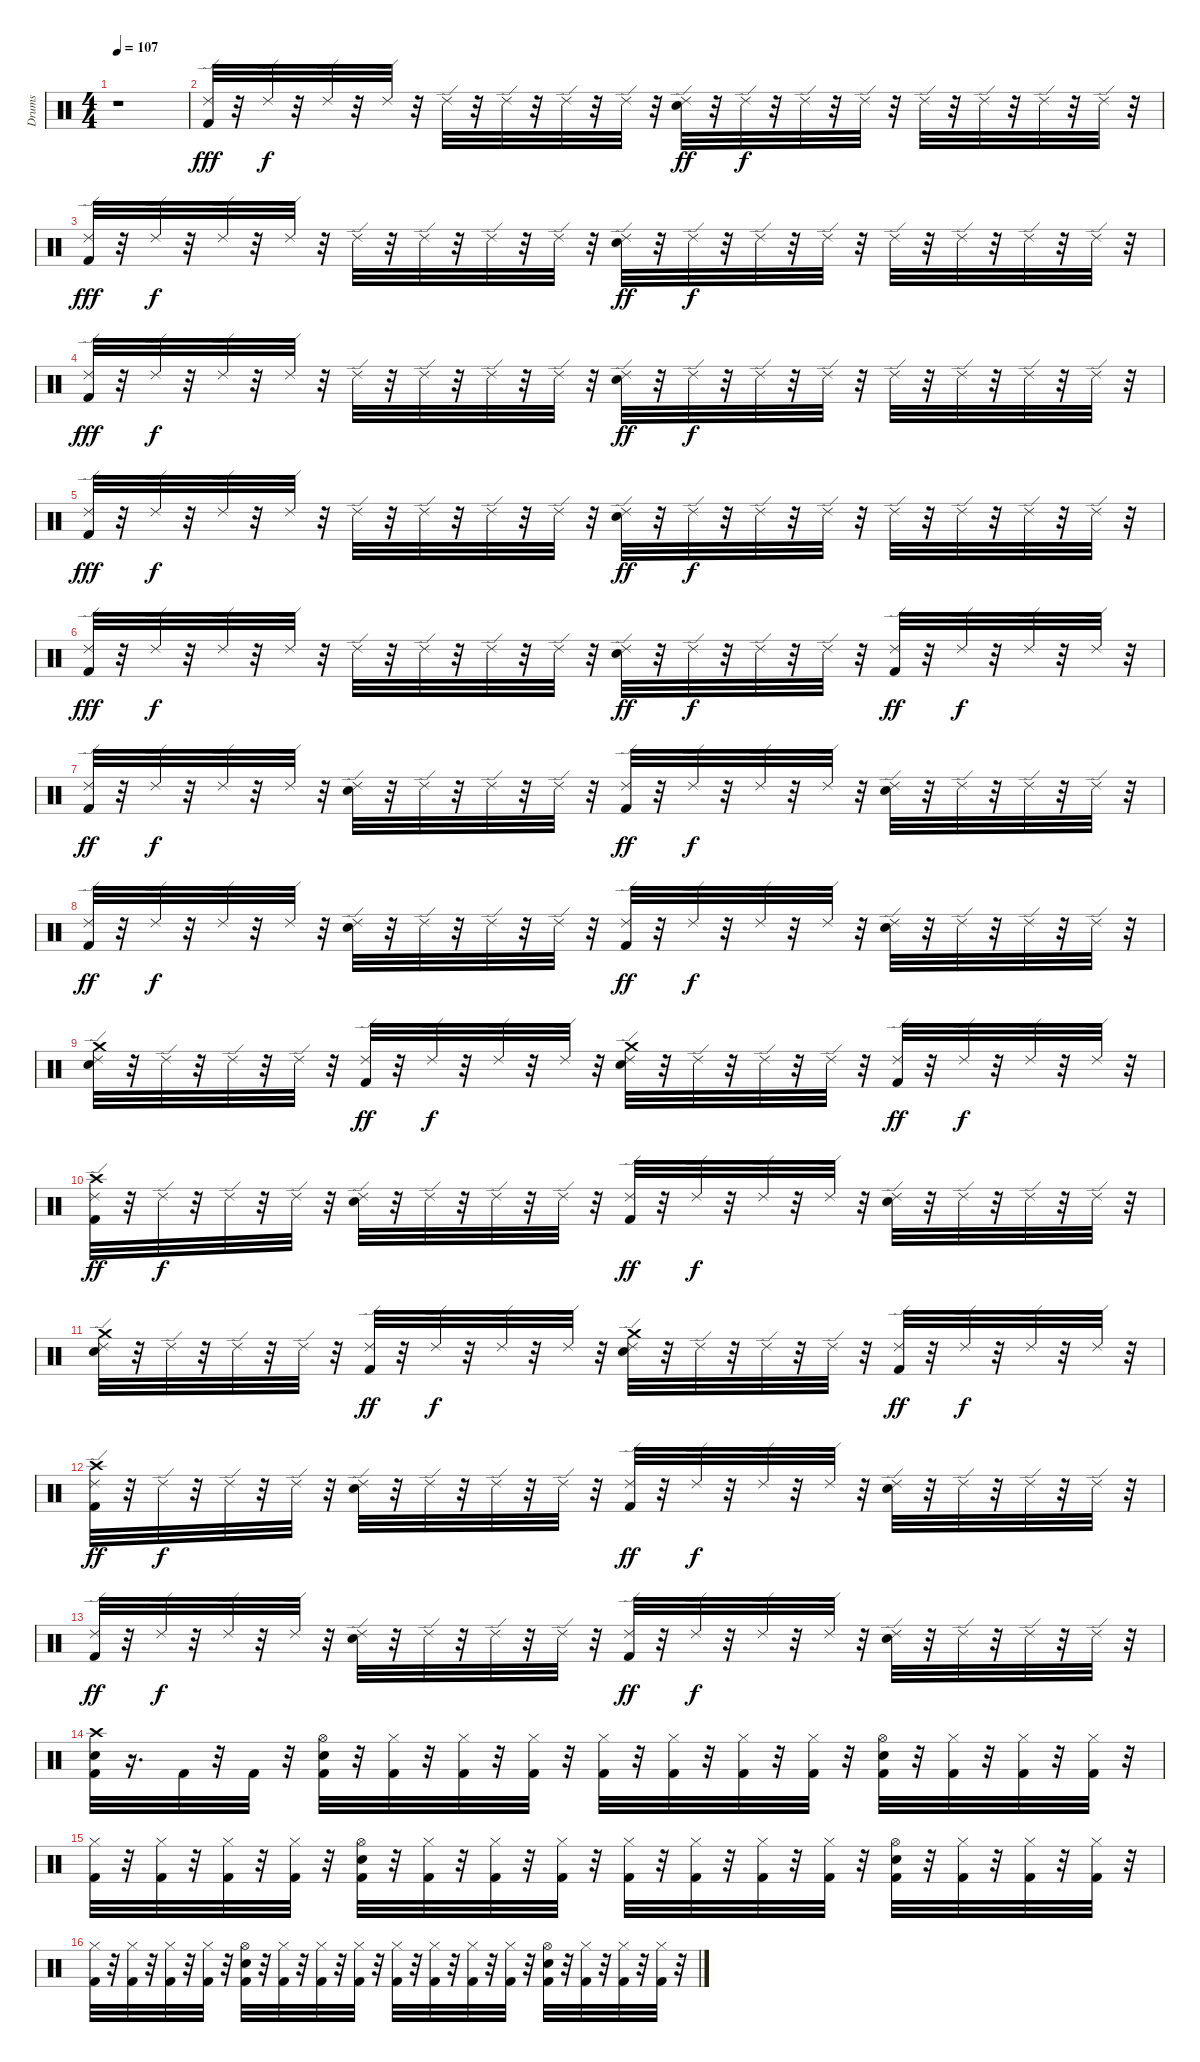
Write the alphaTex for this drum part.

\track ("Drums" "Drums") {instrument percussion}
\staff {score}
\articulation defaults
\ts (4 4)
\tempo 107
\clef neutral
\ks c
r.1{dy fff} |
("Kick (hit) 2" "Ride (edge) 2").32 r.32 "Ride (edge) 2".32{dy f} r.32 "Ride (edge) 2".32 r.32 "Ride (edge) 2".32 r.32 "Ride (edge) 2".32 r.32 "Ride (edge) 2".32 r.32 "Ride (edge) 2".32 r.32 "Ride (edge) 2".32 r.32 ("Snare (hit) 2" "Ride (edge) 2").32{dy ff} r.32 "Ride (edge) 2".32{dy f} r.32 "Ride (edge) 2".32 r.32 "Ride (edge) 2".32 r.32 "Ride (edge) 2".32 r.32 "Ride (edge) 2".32 r.32 "Ride (edge) 2".32 r.32 "Ride (edge) 2".32 r.32 |
("Kick (hit) 2" "Ride (edge) 2").32{dy fff} r.32 "Ride (edge) 2".32{dy f} r.32 "Ride (edge) 2".32 r.32 "Ride (edge) 2".32 r.32 "Ride (edge) 2".32 r.32 "Ride (edge) 2".32 r.32 "Ride (edge) 2".32 r.32 "Ride (edge) 2".32 r.32 ("Snare (hit) 2" "Ride (edge) 2").32{dy ff} r.32 "Ride (edge) 2".32{dy f} r.32 "Ride (edge) 2".32 r.32 "Ride (edge) 2".32 r.32 "Ride (edge) 2".32 r.32 "Ride (edge) 2".32 r.32 "Ride (edge) 2".32 r.32 "Ride (edge) 2".32 r.32 |
("Kick (hit) 2" "Ride (edge) 2").32{dy fff} r.32 "Ride (edge) 2".32{dy f} r.32 "Ride (edge) 2".32 r.32 "Ride (edge) 2".32 r.32 "Ride (edge) 2".32 r.32 "Ride (edge) 2".32 r.32 "Ride (edge) 2".32 r.32 "Ride (edge) 2".32 r.32 ("Snare (hit) 2" "Ride (edge) 2").32{dy ff} r.32 "Ride (edge) 2".32{dy f} r.32 "Ride (edge) 2".32 r.32 "Ride (edge) 2".32 r.32 "Ride (edge) 2".32 r.32 "Ride (edge) 2".32 r.32 "Ride (edge) 2".32 r.32 "Ride (edge) 2".32 r.32 |
("Kick (hit) 2" "Ride (edge) 2").32{dy fff} r.32 "Ride (edge) 2".32{dy f} r.32 "Ride (edge) 2".32 r.32 "Ride (edge) 2".32 r.32 "Ride (edge) 2".32 r.32 "Ride (edge) 2".32 r.32 "Ride (edge) 2".32 r.32 "Ride (edge) 2".32 r.32 ("Snare (hit) 2" "Ride (edge) 2").32{dy ff} r.32 "Ride (edge) 2".32{dy f} r.32 "Ride (edge) 2".32 r.32 "Ride (edge) 2".32 r.32 "Ride (edge) 2".32 r.32 "Ride (edge) 2".32 r.32 "Ride (edge) 2".32 r.32 "Ride (edge) 2".32 r.32 |
("Kick (hit) 2" "Ride (edge) 2").32{dy fff} r.32 "Ride (edge) 2".32{dy f} r.32 "Ride (edge) 2".32 r.32 "Ride (edge) 2".32 r.32 "Ride (edge) 2".32 r.32 "Ride (edge) 2".32 r.32 "Ride (edge) 2".32 r.32 "Ride (edge) 2".32 r.32 ("Snare (hit) 2" "Ride (edge) 2").32{dy ff} r.32 "Ride (edge) 2".32{dy f} r.32 "Ride (edge) 2".32 r.32 "Ride (edge) 2".32 r.32 ("Ride (edge) 2" "Kick (hit) 2").32{dy ff} r.32 "Ride (edge) 2".32{dy f} r.32 "Ride (edge) 2".32 r.32 "Ride (edge) 2".32 r.32 |
("Kick (hit) 2" "Ride (edge) 2").32{dy ff} r.32 "Ride (edge) 2".32{dy f} r.32 "Ride (edge) 2".32 r.32 "Ride (edge) 2".32 r.32 ("Snare (hit) 2" "Ride (edge) 2").32 r.32 "Ride (edge) 2".32 r.32 "Ride (edge) 2".32 r.32 "Ride (edge) 2".32 r.32 ("Kick (hit) 2" "Ride (edge) 2").32{dy ff} r.32 "Ride (edge) 2".32{dy f} r.32 "Ride (edge) 2".32 r.32 "Ride (edge) 2".32 r.32 ("Snare (hit) 2" "Ride (edge) 2").32 r.32 "Ride (edge) 2".32 r.32 "Ride (edge) 2".32 r.32 "Ride (edge) 2".32 r.32 |
("Kick (hit) 2" "Ride (edge) 2").32{dy ff} r.32 "Ride (edge) 2".32{dy f} r.32 "Ride (edge) 2".32 r.32 "Ride (edge) 2".32 r.32 ("Snare (hit) 2" "Ride (edge) 2").32 r.32 "Ride (edge) 2".32 r.32 "Ride (edge) 2".32 r.32 "Ride (edge) 2".32 r.32 ("Kick (hit) 2" "Ride (edge) 2").32{dy ff} r.32 "Ride (edge) 2".32{dy f} r.32 "Ride (edge) 2".32 r.32 "Ride (edge) 2".32 r.32 ("Snare (hit) 2" "Ride (edge) 2").32 r.32 "Ride (edge) 2".32 r.32 "Ride (edge) 2".32 r.32 "Ride (edge) 2".32 r.32 |
("Snare (hit) 2" "Ride (edge) 2" "Crash medium (hit)").32 r.32 "Ride (edge) 2".32 r.32 "Ride (edge) 2".32 r.32 "Ride (edge) 2".32 r.32 ("Kick (hit) 2" "Ride (edge) 2").32{dy ff} r.32 "Ride (edge) 2".32{dy f} r.32 "Ride (edge) 2".32 r.32 "Ride (edge) 2".32 r.32 ("Snare (hit) 2" "Ride (edge) 2" "Crash medium (hit)").32 r.32 "Ride (edge) 2".32 r.32 "Ride (edge) 2".32 r.32 "Ride (edge) 2".32 r.32 ("Kick (hit) 2" "Ride (edge) 2").32{dy ff} r.32 "Ride (edge) 2".32{dy f} r.32 "Ride (edge) 2".32 r.32 "Ride (edge) 2".32 r.32 |
("Kick (hit) 2" "Ride (edge) 2" "Crash high (hit)").32{dy ff} r.32 "Ride (edge) 2".32{dy f} r.32 "Ride (edge) 2".32 r.32 "Ride (edge) 2".32 r.32 ("Snare (hit) 2" "Ride (edge) 2").32 r.32 "Ride (edge) 2".32 r.32 "Ride (edge) 2".32 r.32 "Ride (edge) 2".32 r.32 ("Kick (hit) 2" "Ride (edge) 2").32{dy ff} r.32 "Ride (edge) 2".32{dy f} r.32 "Ride (edge) 2".32 r.32 "Ride (edge) 2".32 r.32 ("Snare (hit) 2" "Ride (edge) 2").32 r.32 "Ride (edge) 2".32 r.32 "Ride (edge) 2".32 r.32 "Ride (edge) 2".32 r.32 |
("Snare (hit) 2" "Ride (edge) 2" "Crash medium (hit)").32 r.32 "Ride (edge) 2".32 r.32 "Ride (edge) 2".32 r.32 "Ride (edge) 2".32 r.32 ("Kick (hit) 2" "Ride (edge) 2").32{dy ff} r.32 "Ride (edge) 2".32{dy f} r.32 "Ride (edge) 2".32 r.32 "Ride (edge) 2".32 r.32 ("Snare (hit) 2" "Ride (edge) 2" "Crash medium (hit)").32 r.32 "Ride (edge) 2".32 r.32 "Ride (edge) 2".32 r.32 "Ride (edge) 2".32 r.32 ("Kick (hit) 2" "Ride (edge) 2").32{dy ff} r.32 "Ride (edge) 2".32{dy f} r.32 "Ride (edge) 2".32 r.32 "Ride (edge) 2".32 r.32 |
("Kick (hit) 2" "Ride (edge) 2" "Crash high (hit)").32{dy ff} r.32 "Ride (edge) 2".32{dy f} r.32 "Ride (edge) 2".32 r.32 "Ride (edge) 2".32 r.32 ("Snare (hit) 2" "Ride (edge) 2").32 r.32 "Ride (edge) 2".32 r.32 "Ride (edge) 2".32 r.32 "Ride (edge) 2".32 r.32 ("Kick (hit) 2" "Ride (edge) 2").32{dy ff} r.32 "Ride (edge) 2".32{dy f} r.32 "Ride (edge) 2".32 r.32 "Ride (edge) 2".32 r.32 ("Snare (hit) 2" "Ride (edge) 2").32 r.32 "Ride (edge) 2".32 r.32 "Ride (edge) 2".32 r.32 "Ride (edge) 2".32 r.32 |
("Kick (hit) 2" "Ride (edge) 2").32{dy ff} r.32 "Ride (edge) 2".32{dy f} r.32 "Ride (edge) 2".32 r.32 "Ride (edge) 2".32 r.32 ("Snare (hit) 2" "Ride (edge) 2").32 r.32 "Ride (edge) 2".32 r.32 "Ride (edge) 2".32 r.32 "Ride (edge) 2".32 r.32 ("Kick (hit) 2" "Ride (edge) 2").32{dy ff} r.32 "Ride (edge) 2".32{dy f} r.32 "Ride (edge) 2".32 r.32 "Ride (edge) 2".32 r.32 ("Snare (hit) 2" "Ride (edge) 2").32 r.32 "Ride (edge) 2".32 r.32 "Ride (edge) 2".32 r.32 "Ride (edge) 2".32 r.32 |
("Kick (hit) 2" "Snare (hit) 2" "Crash high (hit)").32 r.16{d} "Kick (hit) 2".32 r.32 "Kick (hit) 2".32 r.32 ("Kick (hit) 2" "Snare (hit) 2" "Hi-Hat (open)").32 r.32 ("Kick (hit) 2" "Hi-Hat (closed)").32 r.32 ("Kick (hit) 2" "Hi-Hat (closed)").32 r.32 ("Kick (hit) 2" "Hi-Hat (closed)").32 r.32 ("Kick (hit) 2" "Hi-Hat (closed)").32 r.32 ("Kick (hit) 2" "Hi-Hat (closed)").32 r.32 ("Kick (hit) 2" "Hi-Hat (closed)").32 r.32 ("Kick (hit) 2" "Hi-Hat (closed)").32 r.32 ("Kick (hit) 2" "Snare (hit) 2" "Hi-Hat (open)").32 r.32 ("Kick (hit) 2" "Hi-Hat (closed)").32 r.32 ("Kick (hit) 2" "Hi-Hat (closed)").32 r.32 ("Kick (hit) 2" "Hi-Hat (closed)").32 r.32 |
("Kick (hit) 2" "Hi-Hat (closed)").32 r.32 ("Kick (hit) 2" "Hi-Hat (closed)").32 r.32 ("Kick (hit) 2" "Hi-Hat (closed)").32 r.32 ("Kick (hit) 2" "Hi-Hat (closed)").32 r.32 ("Kick (hit) 2" "Snare (hit) 2" "Hi-Hat (open)").32 r.32 ("Kick (hit) 2" "Hi-Hat (closed)").32 r.32 ("Kick (hit) 2" "Hi-Hat (closed)").32 r.32 ("Kick (hit) 2" "Hi-Hat (closed)").32 r.32 ("Kick (hit) 2" "Hi-Hat (closed)").32 r.32 ("Kick (hit) 2" "Hi-Hat (closed)").32 r.32 ("Kick (hit) 2" "Hi-Hat (closed)").32 r.32 ("Kick (hit) 2" "Hi-Hat (closed)").32 r.32 ("Kick (hit) 2" "Snare (hit) 2" "Hi-Hat (open)").32 r.32 ("Kick (hit) 2" "Hi-Hat (closed)").32 r.32 ("Kick (hit) 2" "Hi-Hat (closed)").32 r.32 ("Kick (hit) 2" "Hi-Hat (closed)").32 r.32 |
("Kick (hit) 2" "Hi-Hat (closed)").32 r.32 ("Kick (hit) 2" "Hi-Hat (closed)").32 r.32 ("Kick (hit) 2" "Hi-Hat (closed)").32 r.32 ("Kick (hit) 2" "Hi-Hat (closed)").32 r.32 ("Kick (hit) 2" "Snare (hit) 2" "Hi-Hat (open)").32 r.32 ("Kick (hit) 2" "Hi-Hat (closed)").32 r.32 ("Kick (hit) 2" "Hi-Hat (closed)").32 r.32 ("Kick (hit) 2" "Hi-Hat (closed)").32 r.32 ("Kick (hit) 2" "Hi-Hat (closed)").32 r.32 ("Kick (hit) 2" "Hi-Hat (closed)").32 r.32 ("Kick (hit) 2" "Hi-Hat (closed)").32 r.32 ("Kick (hit) 2" "Hi-Hat (closed)").32 r.32 ("Kick (hit) 2" "Snare (hit) 2" "Hi-Hat (open)").32 r.32 ("Kick (hit) 2" "Hi-Hat (closed)").32 r.32 ("Kick (hit) 2" "Hi-Hat (closed)").32 r.32 ("Kick (hit) 2" "Hi-Hat (closed)").32 r.32
